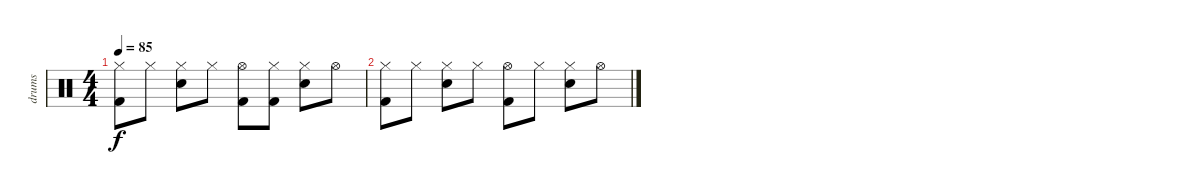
\track ("drums" "drums") {instrument percussion}
\staff {score}
\articulation defaults
\ts (4 4)
\tempo 85
\clef neutral
\ks c
("Kick (hit) 2" "Hi-Hat (closed)").8{dy f} "Hi-Hat (closed)".8 ("Hi-Hat (closed)" "Electric Snare (hit)").8 "Hi-Hat (closed)".8 ("Kick (hit) 2" "Hi-Hat (open)").8 ("Kick (hit) 2" "Hi-Hat (closed)").8 ("Hi-Hat (closed)" "Electric Snare (hit)").8 "Hi-Hat (open)".8 |
("Kick (hit) 2" "Hi-Hat (closed)").8 "Hi-Hat (closed)".8 ("Hi-Hat (closed)" "Electric Snare (hit)").8 "Hi-Hat (closed)".8 ("Kick (hit) 2" "Hi-Hat (open)").8 "Hi-Hat (closed)".8 ("Hi-Hat (closed)" "Electric Snare (hit)").8 "Hi-Hat (open)".8
